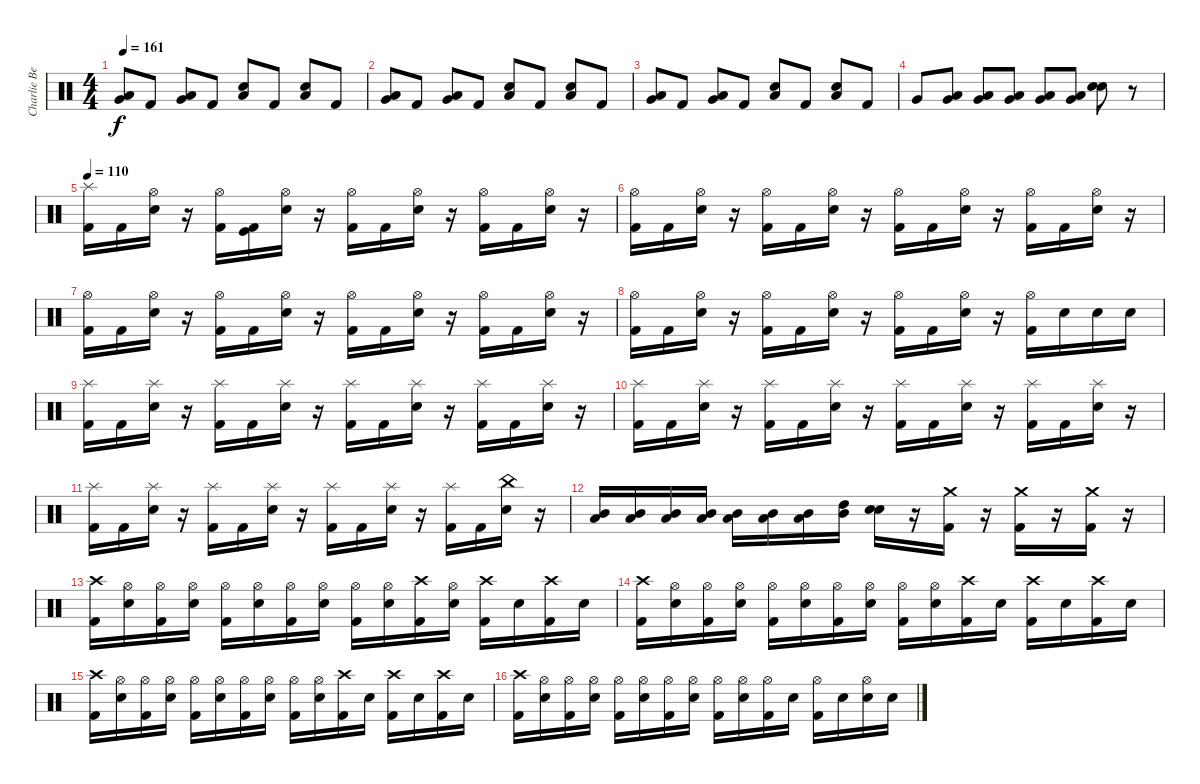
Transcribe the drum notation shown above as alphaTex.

\track ("Charlie Benante" "Charlie Be") {instrument percussion}
\staff {score}
\articulation defaults
\ts (4 4)
\tempo 161
\clef neutral
\ks c
("Low Floor Tom (hit)" "Very Low Tom (hit)").8{dy f} "Kick (hit) 2".8 ("Low Floor Tom (hit)" "Very Low Tom (hit)").8 "Kick (hit) 2".8 ("Low Floor Tom (hit)" "Electric Snare (hit)").8 "Kick (hit) 2".8 ("Low Floor Tom (hit)" "Electric Snare (hit)").8 "Kick (hit) 2".8 |
("Low Floor Tom (hit)" "Very Low Tom (hit)").8 "Kick (hit) 2".8 ("Low Floor Tom (hit)" "Very Low Tom (hit)").8 "Kick (hit) 2".8 ("Low Floor Tom (hit)" "Electric Snare (hit)").8 "Kick (hit) 2".8 ("Low Floor Tom (hit)" "Electric Snare (hit)").8 "Kick (hit) 2".8 |
("Low Floor Tom (hit)" "Very Low Tom (hit)").8 "Kick (hit) 2".8 ("Low Floor Tom (hit)" "Very Low Tom (hit)").8 "Kick (hit) 2".8 ("Low Floor Tom (hit)" "Electric Snare (hit)").8 "Kick (hit) 2".8 ("Low Floor Tom (hit)" "Electric Snare (hit)").8 "Kick (hit) 2".8 |
"Very Low Tom (hit)".8 ("Low Floor Tom (hit)" "Very Low Tom (hit)").8 ("Low Floor Tom (hit)" "Very Low Tom (hit)").8 ("Low Floor Tom (hit)" "Very Low Tom (hit)").8 ("Low Floor Tom (hit)" "Very Low Tom (hit)").8 ("Low Floor Tom (hit)" "Very Low Tom (hit)").8 ("Electric Snare (hit)" "Snare (hit) 2").8 r.8 |
\tempo 110
("Splash (hit)" "Kick (hit) 2").16 "Kick (hit) 2".16 ("Hi-Hat (open)" "Electric Snare (hit)").16 r.16 ("Hi-Hat (open)" "Kick (hit) 2").16 ("Kick (hit)" "Kick (hit) 2").16 ("Hi-Hat (open)" "Electric Snare (hit)").16 r.16 ("Hi-Hat (open)" "Kick (hit) 2").16 "Kick (hit) 2".16 ("Hi-Hat (open)" "Electric Snare (hit)").16 r.16 ("Hi-Hat (open)" "Kick (hit) 2").16 "Kick (hit) 2".16 ("Hi-Hat (open)" "Electric Snare (hit)").16 r.16 |
("Hi-Hat (open)" "Kick (hit) 2").16 "Kick (hit) 2".16 ("Hi-Hat (open)" "Electric Snare (hit)").16 r.16 ("Hi-Hat (open)" "Kick (hit) 2").16 "Kick (hit) 2".16 ("Hi-Hat (open)" "Electric Snare (hit)").16 r.16 ("Hi-Hat (open)" "Kick (hit) 2").16 "Kick (hit) 2".16 ("Hi-Hat (open)" "Electric Snare (hit)").16 r.16 ("Hi-Hat (open)" "Kick (hit) 2").16 "Kick (hit) 2".16 ("Hi-Hat (open)" "Electric Snare (hit)").16 r.16 |
("Hi-Hat (open)" "Kick (hit) 2").16 "Kick (hit) 2".16 ("Hi-Hat (open)" "Electric Snare (hit)").16 r.16 ("Hi-Hat (open)" "Kick (hit) 2").16 "Kick (hit) 2".16 ("Hi-Hat (open)" "Electric Snare (hit)").16 r.16 ("Hi-Hat (open)" "Kick (hit) 2").16 "Kick (hit) 2".16 ("Hi-Hat (open)" "Electric Snare (hit)").16 r.16 ("Hi-Hat (open)" "Kick (hit) 2").16 "Kick (hit) 2".16 ("Hi-Hat (open)" "Electric Snare (hit)").16 r.16 |
("Hi-Hat (open)" "Kick (hit) 2").16 "Kick (hit) 2".16 ("Hi-Hat (open)" "Electric Snare (hit)").16 r.16 ("Hi-Hat (open)" "Kick (hit) 2").16 "Kick (hit) 2".16 ("Hi-Hat (open)" "Electric Snare (hit)").16 r.16 ("Hi-Hat (open)" "Kick (hit) 2").16 "Kick (hit) 2".16 ("Hi-Hat (open)" "Electric Snare (hit)").16 r.16 ("Hi-Hat (open)" "Kick (hit) 2").16 "Electric Snare (hit)".16 "Snare (hit) 2".16 "Electric Snare (hit)".16 |
("Splash (hit)" "Kick (hit) 2").16 "Kick (hit) 2".16 ("Splash (hit)" "Electric Snare (hit)").16 r.16 ("Splash (hit)" "Kick (hit) 2").16 "Kick (hit) 2".16 ("Splash (hit)" "Electric Snare (hit)").16 r.16 ("Splash (hit)" "Kick (hit) 2").16 "Kick (hit) 2".16 ("Splash (hit)" "Electric Snare (hit)").16 r.16 ("Splash (hit)" "Kick (hit) 2").16 "Kick (hit) 2".16 ("Splash (hit)" "Electric Snare (hit)").16 r.16 |
("Splash (hit)" "Kick (hit) 2").16 "Kick (hit) 2".16 ("Splash (hit)" "Electric Snare (hit)").16 r.16 ("Splash (hit)" "Kick (hit) 2").16 "Kick (hit) 2".16 ("Splash (hit)" "Electric Snare (hit)").16 r.16 ("Splash (hit)" "Kick (hit) 2").16 "Kick (hit) 2".16 ("Splash (hit)" "Electric Snare (hit)").16 r.16 ("Splash (hit)" "Kick (hit) 2").16 "Kick (hit) 2".16 ("Splash (hit)" "Electric Snare (hit)").16 r.16 |
("Splash (hit)" "Kick (hit) 2").16 "Kick (hit) 2".16 ("Splash (hit)" "Electric Snare (hit)").16 r.16 ("Splash (hit)" "Kick (hit) 2").16 "Kick (hit) 2".16 ("Splash (hit)" "Electric Snare (hit)").16 r.16 ("Splash (hit)" "Kick (hit) 2").16 "Kick (hit) 2".16 ("Splash (hit)" "Electric Snare (hit)").16 r.16 ("Splash (hit)" "Kick (hit) 2").16 "Kick (hit) 2".16 ("China (hit)" "Electric Snare (hit)").16 r.16 |
("Low Tom (hit)" "Mid Tom (hit)").16 ("Low Tom (hit)" "Mid Tom (hit)").16 ("Low Tom (hit)" "Mid Tom (hit)").16 ("Low Tom (hit)" "Mid Tom (hit)").16 ("Low Tom (hit)" "Mid Tom (hit)").16 ("Low Tom (hit)" "Mid Tom (hit)").16 ("Low Tom (hit)" "Mid Tom (hit)").16 ("Mid Tom (hit)" "High Tom (hit)").16 ("Electric Snare (hit)" "Snare (hit) 2").16 r.16 ("Crash medium (hit)" "Kick (hit) 2").16 r.16 ("Crash medium (hit)" "Kick (hit) 2").16 r.16 ("Crash medium (hit)" "Kick (hit) 2").16 r.16 |
("Crash high (hit)" "Kick (hit) 2").16 ("Hi-Hat (open)" "Electric Snare (hit)").16 ("Hi-Hat (open)" "Kick (hit) 2").16 ("Hi-Hat (open)" "Electric Snare (hit)").16 ("Hi-Hat (open)" "Kick (hit) 2").16 ("Hi-Hat (open)" "Electric Snare (hit)").16 ("Hi-Hat (open)" "Kick (hit) 2").16 ("Hi-Hat (open)" "Electric Snare (hit)").16 ("Hi-Hat (open)" "Kick (hit) 2").16 ("Hi-Hat (open)" "Electric Snare (hit)").16 ("Crash high (hit)" "Kick (hit) 2").16 ("Hi-Hat (open)" "Electric Snare (hit)").16 ("Crash high (hit)" "Kick (hit) 2").16 "Electric Snare (hit)".16 ("Crash high (hit)" "Kick (hit) 2").16 "Electric Snare (hit)".16 |
("Crash high (hit)" "Kick (hit) 2").16 ("Hi-Hat (open)" "Electric Snare (hit)").16 ("Hi-Hat (open)" "Kick (hit) 2").16 ("Hi-Hat (open)" "Electric Snare (hit)").16 ("Hi-Hat (open)" "Kick (hit) 2").16 ("Hi-Hat (open)" "Electric Snare (hit)").16 ("Hi-Hat (open)" "Kick (hit) 2").16 ("Hi-Hat (open)" "Electric Snare (hit)").16 ("Hi-Hat (open)" "Kick (hit) 2").16 ("Hi-Hat (open)" "Electric Snare (hit)").16 ("Crash high (hit)" "Kick (hit) 2").16 "Electric Snare (hit)".16 ("Crash high (hit)" "Kick (hit) 2").16 "Electric Snare (hit)".16 ("Crash high (hit)" "Kick (hit) 2").16 "Electric Snare (hit)".16 |
("Crash high (hit)" "Kick (hit) 2").16 ("Hi-Hat (open)" "Electric Snare (hit)").16 ("Hi-Hat (open)" "Kick (hit) 2").16 ("Hi-Hat (open)" "Electric Snare (hit)").16 ("Hi-Hat (open)" "Kick (hit) 2").16 ("Hi-Hat (open)" "Electric Snare (hit)").16 ("Hi-Hat (open)" "Kick (hit) 2").16 ("Hi-Hat (open)" "Electric Snare (hit)").16 ("Hi-Hat (open)" "Kick (hit) 2").16 ("Hi-Hat (open)" "Electric Snare (hit)").16 ("Crash high (hit)" "Kick (hit) 2").16 "Electric Snare (hit)".16 ("Crash high (hit)" "Kick (hit) 2").16 "Electric Snare (hit)".16 ("Crash high (hit)" "Kick (hit) 2").16 "Electric Snare (hit)".16 |
("Crash high (hit)" "Kick (hit) 2").16 ("Hi-Hat (open)" "Electric Snare (hit)").16 ("Hi-Hat (open)" "Kick (hit) 2").16 ("Hi-Hat (open)" "Electric Snare (hit)").16 ("Hi-Hat (open)" "Kick (hit) 2").16 ("Hi-Hat (open)" "Electric Snare (hit)").16 ("Hi-Hat (open)" "Kick (hit) 2").16 ("Hi-Hat (open)" "Electric Snare (hit)").16 ("Hi-Hat (open)" "Kick (hit) 2").16 ("Hi-Hat (open)" "Electric Snare (hit)").16 ("Hi-Hat (open)" "Kick (hit) 2").16 "Electric Snare (hit)".16 ("Hi-Hat (open)" "Kick (hit) 2").16 "Electric Snare (hit)".16 ("Hi-Hat (open)" "Electric Snare (hit)").16 "Electric Snare (hit)".16
